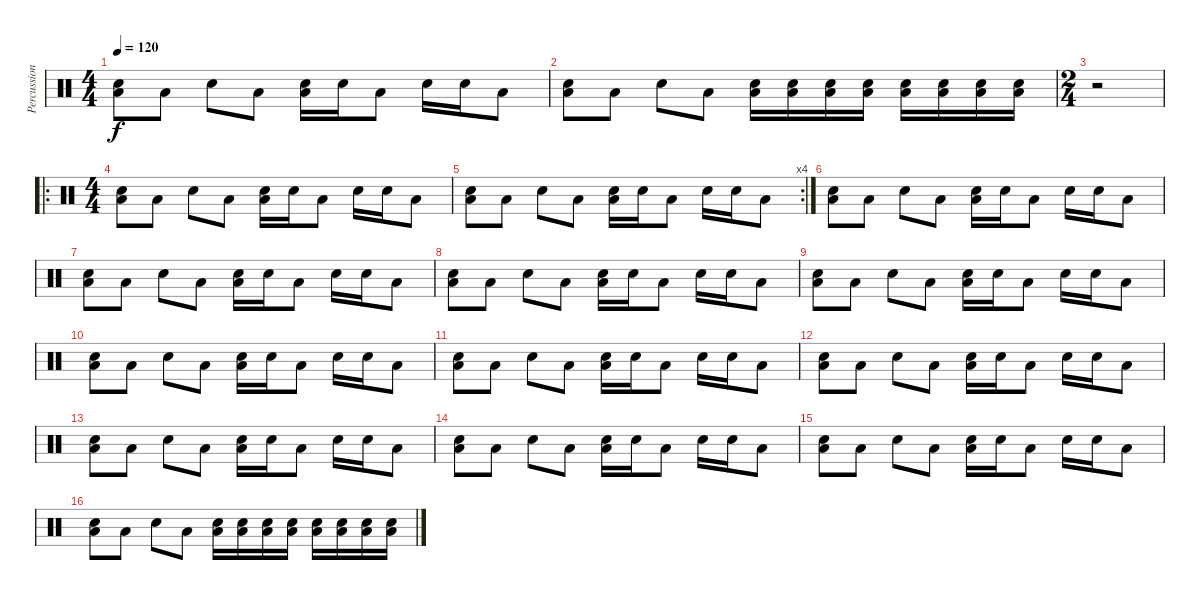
\track ("Percussions" "Percussion") {instrument percussion}
\staff {score}
\articulation defaults
\ts (4 4)
\tempo 120
\clef neutral
\ks c
("Electric Snare (hit)" "Low Floor Tom (hit)").8{dy f} "Low Tom (hit)".8 "Electric Snare (hit)".8 "Low Tom (hit)".8 ("Electric Snare (hit)" "Low Floor Tom (hit)").16 "Electric Snare (hit)".16 "Low Tom (hit)".8 "Electric Snare (hit)".16 "Electric Snare (hit)".16 "Low Tom (hit)".8 |
("Electric Snare (hit)" "Low Floor Tom (hit)").8 "Low Tom (hit)".8 "Electric Snare (hit)".8 "Low Tom (hit)".8 ("Electric Snare (hit)" "Low Floor Tom (hit)").16 ("Electric Snare (hit)" "Low Floor Tom (hit)").16 ("Electric Snare (hit)" "Low Floor Tom (hit)").16 ("Electric Snare (hit)" "Low Floor Tom (hit)").16 ("Electric Snare (hit)" "Low Floor Tom (hit)").16 ("Electric Snare (hit)" "Low Floor Tom (hit)").16 ("Electric Snare (hit)" "Low Floor Tom (hit)").16 ("Electric Snare (hit)" "Low Floor Tom (hit)").16 |
\ts (2 4)
r.2 |
\ro
\ts (4 4)
("Electric Snare (hit)" "Low Floor Tom (hit)").8 "Low Tom (hit)".8 "Electric Snare (hit)".8 "Low Tom (hit)".8 ("Electric Snare (hit)" "Low Floor Tom (hit)").16 "Electric Snare (hit)".16 "Low Tom (hit)".8 "Electric Snare (hit)".16 "Electric Snare (hit)".16 "Low Tom (hit)".8 |
\rc 4
("Electric Snare (hit)" "Low Floor Tom (hit)").8 "Low Tom (hit)".8 "Electric Snare (hit)".8 "Low Tom (hit)".8 ("Electric Snare (hit)" "Low Floor Tom (hit)").16 "Electric Snare (hit)".16 "Low Tom (hit)".8 "Electric Snare (hit)".16 "Electric Snare (hit)".16 "Low Tom (hit)".8 |
("Electric Snare (hit)" "Low Floor Tom (hit)").8 "Low Tom (hit)".8 "Electric Snare (hit)".8 "Low Tom (hit)".8 ("Electric Snare (hit)" "Low Floor Tom (hit)").16 "Electric Snare (hit)".16 "Low Tom (hit)".8 "Electric Snare (hit)".16 "Electric Snare (hit)".16 "Low Tom (hit)".8 |
("Electric Snare (hit)" "Low Floor Tom (hit)").8 "Low Tom (hit)".8 "Electric Snare (hit)".8 "Low Tom (hit)".8 ("Electric Snare (hit)" "Low Floor Tom (hit)").16 "Electric Snare (hit)".16 "Low Tom (hit)".8 "Electric Snare (hit)".16 "Electric Snare (hit)".16 "Low Tom (hit)".8 |
("Electric Snare (hit)" "Low Floor Tom (hit)").8 "Low Tom (hit)".8 "Electric Snare (hit)".8 "Low Tom (hit)".8 ("Electric Snare (hit)" "Low Floor Tom (hit)").16 "Electric Snare (hit)".16 "Low Tom (hit)".8 "Electric Snare (hit)".16 "Electric Snare (hit)".16 "Low Tom (hit)".8 |
("Electric Snare (hit)" "Low Floor Tom (hit)").8 "Low Tom (hit)".8 "Electric Snare (hit)".8 "Low Tom (hit)".8 ("Electric Snare (hit)" "Low Floor Tom (hit)").16 "Electric Snare (hit)".16 "Low Tom (hit)".8 "Electric Snare (hit)".16 "Electric Snare (hit)".16 "Low Tom (hit)".8 |
("Electric Snare (hit)" "Low Floor Tom (hit)").8 "Low Tom (hit)".8 "Electric Snare (hit)".8 "Low Tom (hit)".8 ("Electric Snare (hit)" "Low Floor Tom (hit)").16 "Electric Snare (hit)".16 "Low Tom (hit)".8 "Electric Snare (hit)".16 "Electric Snare (hit)".16 "Low Tom (hit)".8 |
("Electric Snare (hit)" "Low Floor Tom (hit)").8 "Low Tom (hit)".8 "Electric Snare (hit)".8 "Low Tom (hit)".8 ("Electric Snare (hit)" "Low Floor Tom (hit)").16 "Electric Snare (hit)".16 "Low Tom (hit)".8 "Electric Snare (hit)".16 "Electric Snare (hit)".16 "Low Tom (hit)".8 |
("Electric Snare (hit)" "Low Floor Tom (hit)").8 "Low Tom (hit)".8 "Electric Snare (hit)".8 "Low Tom (hit)".8 ("Electric Snare (hit)" "Low Floor Tom (hit)").16 "Electric Snare (hit)".16 "Low Tom (hit)".8 "Electric Snare (hit)".16 "Electric Snare (hit)".16 "Low Tom (hit)".8 |
("Electric Snare (hit)" "Low Floor Tom (hit)").8 "Low Tom (hit)".8 "Electric Snare (hit)".8 "Low Tom (hit)".8 ("Electric Snare (hit)" "Low Floor Tom (hit)").16 "Electric Snare (hit)".16 "Low Tom (hit)".8 "Electric Snare (hit)".16 "Electric Snare (hit)".16 "Low Tom (hit)".8 |
("Electric Snare (hit)" "Low Floor Tom (hit)").8 "Low Tom (hit)".8 "Electric Snare (hit)".8 "Low Tom (hit)".8 ("Electric Snare (hit)" "Low Floor Tom (hit)").16 "Electric Snare (hit)".16 "Low Tom (hit)".8 "Electric Snare (hit)".16 "Electric Snare (hit)".16 "Low Tom (hit)".8 |
("Electric Snare (hit)" "Low Floor Tom (hit)").8 "Low Tom (hit)".8 "Electric Snare (hit)".8 "Low Tom (hit)".8 ("Electric Snare (hit)" "Low Floor Tom (hit)").16 "Electric Snare (hit)".16 "Low Tom (hit)".8 "Electric Snare (hit)".16 "Electric Snare (hit)".16 "Low Tom (hit)".8 |
("Electric Snare (hit)" "Low Floor Tom (hit)").8 "Low Tom (hit)".8 "Electric Snare (hit)".8 "Low Tom (hit)".8 ("Electric Snare (hit)" "Low Floor Tom (hit)").16 ("Electric Snare (hit)" "Low Floor Tom (hit)").16 ("Electric Snare (hit)" "Low Floor Tom (hit)").16 ("Electric Snare (hit)" "Low Floor Tom (hit)").16 ("Electric Snare (hit)" "Low Floor Tom (hit)").16 ("Electric Snare (hit)" "Low Floor Tom (hit)").16 ("Electric Snare (hit)" "Low Floor Tom (hit)").16 ("Electric Snare (hit)" "Low Floor Tom (hit)").16
